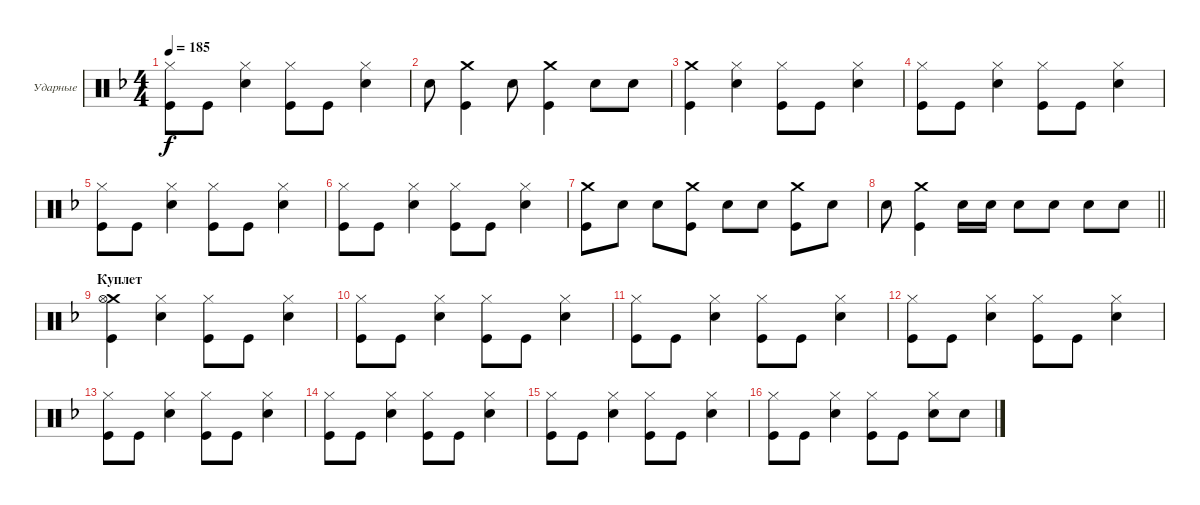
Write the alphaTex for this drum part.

\bracketExtendMode groupsimilarinstruments
\firstSystemTrackNameOrientation horizontal
\otherSystemsTrackNameOrientation horizontal
\track ("Александр Львов" "Ударные") {instrument percussion}
\staff {score}
\articulation defaults
\ts (4 4)
\tempo 185
\clef neutral
\ks dminor
("Kick (hit)" "Hi-Hat (closed)").8{dy f} "Kick (hit)".8 ("Snare (hit) 2" "Hi-Hat (closed)").4 ("Kick (hit)" "Hi-Hat (closed)").8 "Kick (hit)".8 ("Hi-Hat (closed)" "Snare (hit) 2").4 |
"Snare (hit) 2".8 ("Kick (hit)" "Crash medium (hit)").4 "Snare (hit) 2".8 ("Kick (hit)" "Crash medium (hit)").4 "Snare (hit) 2".8 "Snare (hit) 2".8 |
("Kick (hit)" "Crash medium (hit)").4 ("Snare (hit) 2" "Hi-Hat (closed)").4 ("Kick (hit)" "Hi-Hat (closed)").8 "Kick (hit)".8 ("Hi-Hat (closed)" "Snare (hit) 2").4 |
("Kick (hit)" "Hi-Hat (closed)").8 "Kick (hit)".8 ("Snare (hit) 2" "Hi-Hat (closed)").4 ("Kick (hit)" "Hi-Hat (closed)").8 "Kick (hit)".8 ("Hi-Hat (closed)" "Snare (hit) 2").4 |
("Kick (hit)" "Hi-Hat (closed)").8 "Kick (hit)".8 ("Snare (hit) 2" "Hi-Hat (closed)").4 ("Kick (hit)" "Hi-Hat (closed)").8 "Kick (hit)".8 ("Hi-Hat (closed)" "Snare (hit) 2").4 |
("Kick (hit)" "Hi-Hat (closed)").8 "Kick (hit)".8 ("Snare (hit) 2" "Hi-Hat (closed)").4 ("Kick (hit)" "Hi-Hat (closed)").8 "Kick (hit)".8 ("Hi-Hat (closed)" "Snare (hit) 2").4 |
("Kick (hit)" "Crash medium (hit)").8 "Snare (hit) 2".8 "Snare (hit) 2".8 ("Kick (hit)" "Crash medium (hit)").8 "Snare (hit) 2".8 "Snare (hit) 2".8 ("Kick (hit)" "Crash medium (hit)").8 "Snare (hit) 2".8 |
\barLineRight lightlight "Snare (hit) 2".8
("Kick (hit)" "Crash medium (hit)").4 "Snare (hit) 2".16 "Snare (hit) 2".16 "Snare (hit) 2".8 "Snare (hit) 2".8 "Snare (hit) 2".8 "Snare (hit) 2".8 |
\section ("" "Куплет")
("Kick (hit)" "Crash medium (hit)" "Hi-Hat (open)").4 ("Snare (hit) 2" "Hi-Hat (closed)").4 ("Kick (hit)" "Hi-Hat (closed)").8 "Kick (hit)".8 ("Hi-Hat (closed)" "Snare (hit) 2").4 |
("Kick (hit)" "Hi-Hat (closed)").8 "Kick (hit)".8 ("Snare (hit) 2" "Hi-Hat (closed)").4 ("Kick (hit)" "Hi-Hat (closed)").8 "Kick (hit)".8 ("Hi-Hat (closed)" "Snare (hit) 2").4 |
("Kick (hit)" "Hi-Hat (closed)").8 "Kick (hit)".8 ("Snare (hit) 2" "Hi-Hat (closed)").4 ("Kick (hit)" "Hi-Hat (closed)").8 "Kick (hit)".8 ("Hi-Hat (closed)" "Snare (hit) 2").4 |
("Kick (hit)" "Hi-Hat (closed)").8 "Kick (hit)".8 ("Snare (hit) 2" "Hi-Hat (closed)").4 ("Kick (hit)" "Hi-Hat (closed)").8 "Kick (hit)".8 ("Hi-Hat (closed)" "Snare (hit) 2").4 |
("Kick (hit)" "Hi-Hat (closed)").8 "Kick (hit)".8 ("Snare (hit) 2" "Hi-Hat (closed)").4 ("Kick (hit)" "Hi-Hat (closed)").8 "Kick (hit)".8 ("Hi-Hat (closed)" "Snare (hit) 2").4 |
("Kick (hit)" "Hi-Hat (closed)").8 "Kick (hit)".8 ("Snare (hit) 2" "Hi-Hat (closed)").4 ("Kick (hit)" "Hi-Hat (closed)").8 "Kick (hit)".8 ("Hi-Hat (closed)" "Snare (hit) 2").4 |
("Kick (hit)" "Hi-Hat (closed)").8 "Kick (hit)".8 ("Snare (hit) 2" "Hi-Hat (closed)").4 ("Kick (hit)" "Hi-Hat (closed)").8 "Kick (hit)".8 ("Hi-Hat (closed)" "Snare (hit) 2").4 |
("Kick (hit)" "Hi-Hat (closed)").8 "Kick (hit)".8 ("Snare (hit) 2" "Hi-Hat (closed)").4 ("Kick (hit)" "Hi-Hat (closed)").8 "Kick (hit)".8 ("Hi-Hat (closed)" "Snare (hit) 2").8 "Snare (hit) 2".8
